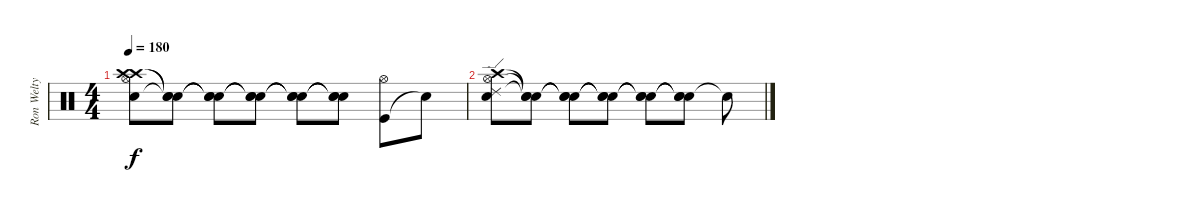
\track ("Ron Welty" "Ron Welty") {instrument percussion}
\staff {score}
\articulation defaults
\ts (4 4)
\tempo 180
\clef neutral
\ks c
("Electric Snare (hit)" "Crash high (hit)" "Crash high (hit)" "Hi-Hat (open)").8{dy f} ("Snare (hit)"{t} "Snare (hit)"{t} "Snare (hit)"{t}).8 ("Snare (hit)"{t} "Snare (hit)"{t} "Snare (hit)"{t}).8 ("Snare (hit)"{t} "Snare (hit)"{t} "Snare (hit)"{t}).8 ("Snare (hit)"{t} "Snare (hit)"{t} "Snare (hit)"{t}).8 ("Snare (hit)"{t} "Snare (hit)"{t} "Snare (hit)"{t}).8 ("Kick (hit)" "Hi-Hat (open)").8 "Snare (hit)"{t}.8 |
("Crash high (hit)" "Ride (edge) 2" "Hi-Hat (open)" "Electric Snare (hit)").8 ("Snare (hit)"{t} "Snare (hit)"{t} "Snare (hit)"{t}).8 ("Snare (hit)"{t} "Snare (hit)"{t} "Snare (hit)"{t}).8 ("Snare (hit)"{t} "Snare (hit)"{t} "Snare (hit)"{t}).8 ("Snare (hit)"{t} "Snare (hit)"{t} "Snare (hit)"{t}).8 ("Snare (hit)"{t} "Snare (hit)"{t} "Snare (hit)"{t}).8 "Snare (hit)"{t}.8
